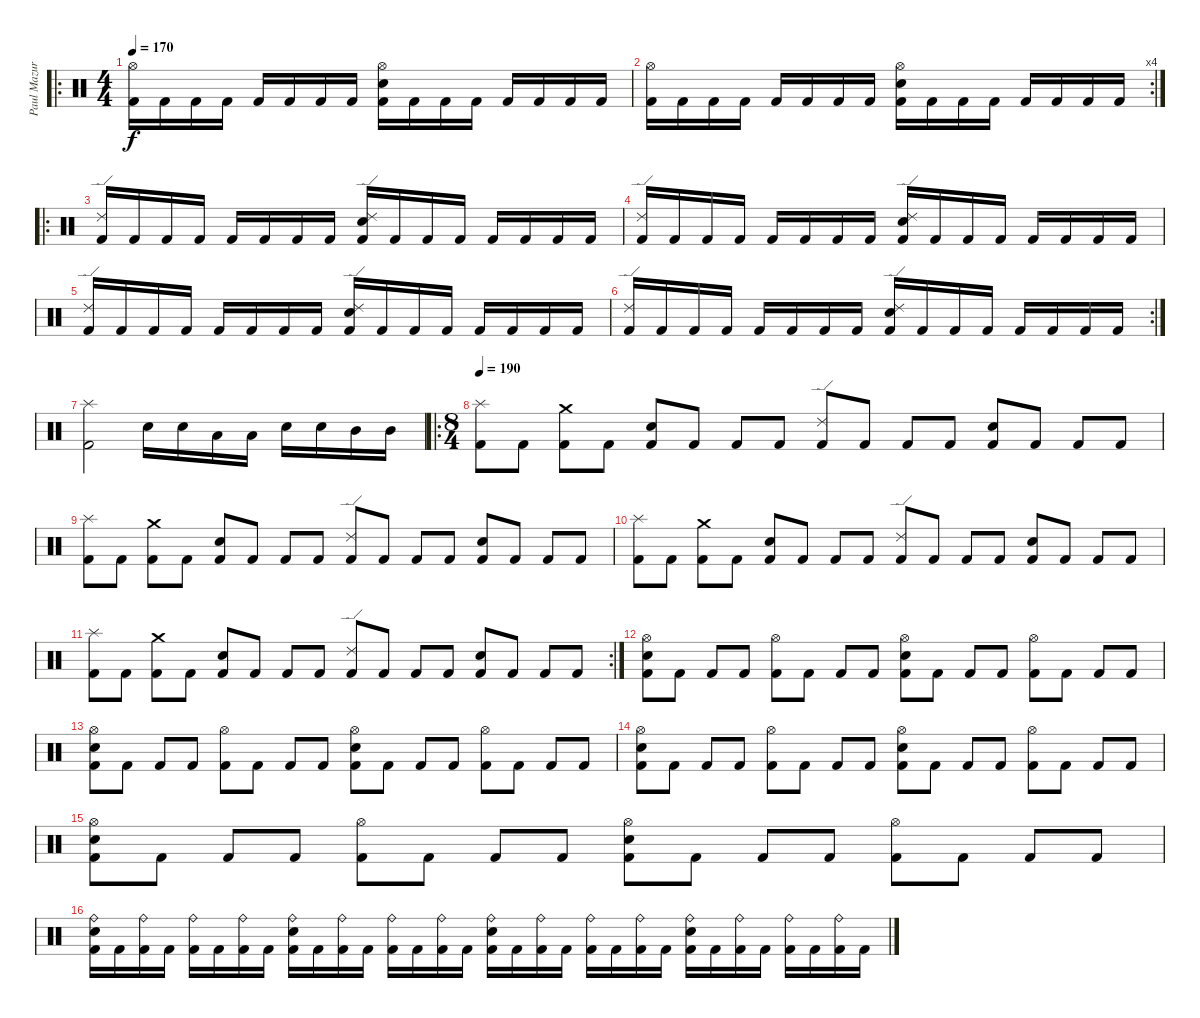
\track ("Paul Mazurkiewicz" "Paul Mazur") {instrument percussion}
\staff {score}
\articulation defaults
\ro
\ts (4 4)
\tempo 170
\clef neutral
\ks c
("Hi-Hat (open)" "Kick (hit) 2").16{dy f} "Kick (hit) 2".16 "Kick (hit) 2".16 "Kick (hit) 2".16 "Kick (hit) 2".16 "Kick (hit) 2".16 "Kick (hit) 2".16 "Kick (hit) 2".16 ("Hi-Hat (open)" "Snare (hit) 2" "Kick (hit) 2").16 "Kick (hit) 2".16 "Kick (hit) 2".16 "Kick (hit) 2".16 "Kick (hit) 2".16 "Kick (hit) 2".16 "Kick (hit) 2".16 "Kick (hit) 2".16 |
\rc 4
("Hi-Hat (open)" "Kick (hit) 2").16 "Kick (hit) 2".16 "Kick (hit) 2".16 "Kick (hit) 2".16 "Kick (hit) 2".16 "Kick (hit) 2".16 "Kick (hit) 2".16 "Kick (hit) 2".16 ("Hi-Hat (open)" "Snare (hit) 2" "Kick (hit) 2").16 "Kick (hit) 2".16 "Kick (hit) 2".16 "Kick (hit) 2".16 "Kick (hit) 2".16 "Kick (hit) 2".16 "Kick (hit) 2".16 "Kick (hit) 2".16 |
\ro
("Ride (edge) 2" "Kick (hit) 2").16 "Kick (hit) 2".16 "Kick (hit) 2".16 "Kick (hit) 2".16 "Kick (hit) 2".16 "Kick (hit) 2".16 "Kick (hit) 2".16 "Kick (hit) 2".16 ("Ride (edge) 2" "Snare (hit) 2" "Kick (hit) 2").16 "Kick (hit) 2".16 "Kick (hit) 2".16 "Kick (hit) 2".16 "Kick (hit) 2".16 "Kick (hit) 2".16 "Kick (hit) 2".16 "Kick (hit) 2".16 |
("Ride (edge) 2" "Kick (hit) 2").16 "Kick (hit) 2".16 "Kick (hit) 2".16 "Kick (hit) 2".16 "Kick (hit) 2".16 "Kick (hit) 2".16 "Kick (hit) 2".16 "Kick (hit) 2".16 ("Ride (edge) 2" "Snare (hit) 2" "Kick (hit) 2").16 "Kick (hit) 2".16 "Kick (hit) 2".16 "Kick (hit) 2".16 "Kick (hit) 2".16 "Kick (hit) 2".16 "Kick (hit) 2".16 "Kick (hit) 2".16 |
("Ride (edge) 2" "Kick (hit) 2").16 "Kick (hit) 2".16 "Kick (hit) 2".16 "Kick (hit) 2".16 "Kick (hit) 2".16 "Kick (hit) 2".16 "Kick (hit) 2".16 "Kick (hit) 2".16 ("Ride (edge) 2" "Snare (hit) 2" "Kick (hit) 2").16 "Kick (hit) 2".16 "Kick (hit) 2".16 "Kick (hit) 2".16 "Kick (hit) 2".16 "Kick (hit) 2".16 "Kick (hit) 2".16 "Kick (hit) 2".16 |
\rc 2
("Ride (edge) 2" "Kick (hit) 2").16 "Kick (hit) 2".16 "Kick (hit) 2".16 "Kick (hit) 2".16 "Kick (hit) 2".16 "Kick (hit) 2".16 "Kick (hit) 2".16 "Kick (hit) 2".16 ("Ride (edge) 2" "Snare (hit) 2" "Kick (hit) 2").16 "Kick (hit) 2".16 "Kick (hit) 2".16 "Kick (hit) 2".16 "Kick (hit) 2".16 "Kick (hit) 2".16 "Kick (hit) 2".16 "Kick (hit) 2".16 |
("Splash (hit)" "Kick (hit) 2").2 "Snare (hit) 2".16 "Snare (hit) 2".16 "Low Tom (hit)".16 "Low Tom (hit)".16 "Snare (hit) 2".16 "Snare (hit) 2".16 "Mid Tom (hit)".16 "Mid Tom (hit)".16 |
\ro
\ts (8 4)
\tempo 200
\tempo 190
("Splash (hit)" "Kick (hit) 2").8 "Kick (hit) 2".8 ("Crash medium (hit)" "Kick (hit) 2").8 "Kick (hit) 2".8 ("Snare (hit) 2" "Kick (hit) 2").8 "Kick (hit) 2".8 "Kick (hit) 2".8 "Kick (hit) 2".8 ("Ride (edge) 2" "Kick (hit) 2").8 "Kick (hit) 2".8 "Kick (hit) 2".8 "Kick (hit) 2".8 ("Snare (hit) 2" "Kick (hit) 2").8 "Kick (hit) 2".8 "Kick (hit) 2".8 "Kick (hit) 2".8 |
("Splash (hit)" "Kick (hit) 2").8 "Kick (hit) 2".8 ("Crash medium (hit)" "Kick (hit) 2").8 "Kick (hit) 2".8 ("Snare (hit) 2" "Kick (hit) 2").8 "Kick (hit) 2".8 "Kick (hit) 2".8 "Kick (hit) 2".8 ("Ride (edge) 2" "Kick (hit) 2").8 "Kick (hit) 2".8 "Kick (hit) 2".8 "Kick (hit) 2".8 ("Snare (hit) 2" "Kick (hit) 2").8 "Kick (hit) 2".8 "Kick (hit) 2".8 "Kick (hit) 2".8 |
("Splash (hit)" "Kick (hit) 2").8 "Kick (hit) 2".8 ("Crash medium (hit)" "Kick (hit) 2").8 "Kick (hit) 2".8 ("Snare (hit) 2" "Kick (hit) 2").8 "Kick (hit) 2".8 "Kick (hit) 2".8 "Kick (hit) 2".8 ("Ride (edge) 2" "Kick (hit) 2").8 "Kick (hit) 2".8 "Kick (hit) 2".8 "Kick (hit) 2".8 ("Snare (hit) 2" "Kick (hit) 2").8 "Kick (hit) 2".8 "Kick (hit) 2".8 "Kick (hit) 2".8 |
\rc 2
("Splash (hit)" "Kick (hit) 2").8 "Kick (hit) 2".8 ("Crash medium (hit)" "Kick (hit) 2").8 "Kick (hit) 2".8 ("Snare (hit) 2" "Kick (hit) 2").8 "Kick (hit) 2".8 "Kick (hit) 2".8 "Kick (hit) 2".8 ("Ride (edge) 2" "Kick (hit) 2").8 "Kick (hit) 2".8 "Kick (hit) 2".8 "Kick (hit) 2".8 ("Snare (hit) 2" "Kick (hit) 2").8 "Kick (hit) 2".8 "Kick (hit) 2".8 "Kick (hit) 2".8 |
("Hi-Hat (open)" "Snare (hit) 2" "Kick (hit) 2").8 "Kick (hit) 2".8 "Kick (hit) 2".8 "Kick (hit) 2".8 ("Hi-Hat (open)" "Kick (hit) 2").8 "Kick (hit) 2".8 "Kick (hit) 2".8 "Kick (hit) 2".8 ("Hi-Hat (open)" "Snare (hit) 2" "Kick (hit) 2").8 "Kick (hit) 2".8 "Kick (hit) 2".8 "Kick (hit) 2".8 ("Hi-Hat (open)" "Kick (hit) 2").8 "Kick (hit) 2".8 "Kick (hit) 2".8 "Kick (hit) 2".8 |
("Hi-Hat (open)" "Snare (hit) 2" "Kick (hit) 2").8 "Kick (hit) 2".8 "Kick (hit) 2".8 "Kick (hit) 2".8 ("Hi-Hat (open)" "Kick (hit) 2").8 "Kick (hit) 2".8 "Kick (hit) 2".8 "Kick (hit) 2".8 ("Hi-Hat (open)" "Snare (hit) 2" "Kick (hit) 2").8 "Kick (hit) 2".8 "Kick (hit) 2".8 "Kick (hit) 2".8 ("Hi-Hat (open)" "Kick (hit) 2").8 "Kick (hit) 2".8 "Kick (hit) 2".8 "Kick (hit) 2".8 |
("Hi-Hat (open)" "Snare (hit) 2" "Kick (hit) 2").8 "Kick (hit) 2".8 "Kick (hit) 2".8 "Kick (hit) 2".8 ("Hi-Hat (open)" "Kick (hit) 2").8 "Kick (hit) 2".8 "Kick (hit) 2".8 "Kick (hit) 2".8 ("Hi-Hat (open)" "Snare (hit) 2" "Kick (hit) 2").8 "Kick (hit) 2".8 "Kick (hit) 2".8 "Kick (hit) 2".8 ("Hi-Hat (open)" "Kick (hit) 2").8 "Kick (hit) 2".8 "Kick (hit) 2".8 "Kick (hit) 2".8 |
("Hi-Hat (open)" "Snare (hit) 2" "Kick (hit) 2").8 "Kick (hit) 2".8 "Kick (hit) 2".8 "Kick (hit) 2".8 ("Hi-Hat (open)" "Kick (hit) 2").8 "Kick (hit) 2".8 "Kick (hit) 2".8 "Kick (hit) 2".8 ("Hi-Hat (open)" "Snare (hit) 2" "Kick (hit) 2").8 "Kick (hit) 2".8 "Kick (hit) 2".8 "Kick (hit) 2".8 ("Hi-Hat (open)" "Kick (hit) 2").8 "Kick (hit) 2".8 "Kick (hit) 2".8 "Kick (hit) 2".8 |
("Ride (bell)" "Snare (hit) 2" "Kick (hit) 2").16 "Kick (hit) 2".16 ("Ride (bell)" "Kick (hit) 2").16 "Kick (hit) 2".16 ("Ride (bell)" "Kick (hit) 2").16 "Kick (hit) 2".16 ("Ride (bell)" "Kick (hit) 2").16 "Kick (hit) 2".16 ("Ride (bell)" "Snare (hit) 2" "Kick (hit) 2").16 "Kick (hit) 2".16 ("Ride (bell)" "Kick (hit) 2").16 "Kick (hit) 2".16 ("Ride (bell)" "Kick (hit) 2").16 "Kick (hit) 2".16 ("Ride (bell)" "Kick (hit) 2").16 "Kick (hit) 2".16 ("Ride (bell)" "Snare (hit) 2" "Kick (hit) 2").16 "Kick (hit) 2".16 ("Ride (bell)" "Kick (hit) 2").16 "Kick (hit) 2".16 ("Ride (bell)" "Kick (hit) 2").16 "Kick (hit) 2".16 ("Ride (bell)" "Kick (hit) 2").16 "Kick (hit) 2".16 ("Ride (bell)" "Snare (hit) 2" "Kick (hit) 2").16 "Kick (hit) 2".16 ("Ride (bell)" "Kick (hit) 2").16 "Kick (hit) 2".16 ("Ride (bell)" "Kick (hit) 2").16 "Kick (hit) 2".16 ("Ride (bell)" "Kick (hit) 2").16 "Kick (hit) 2".16
